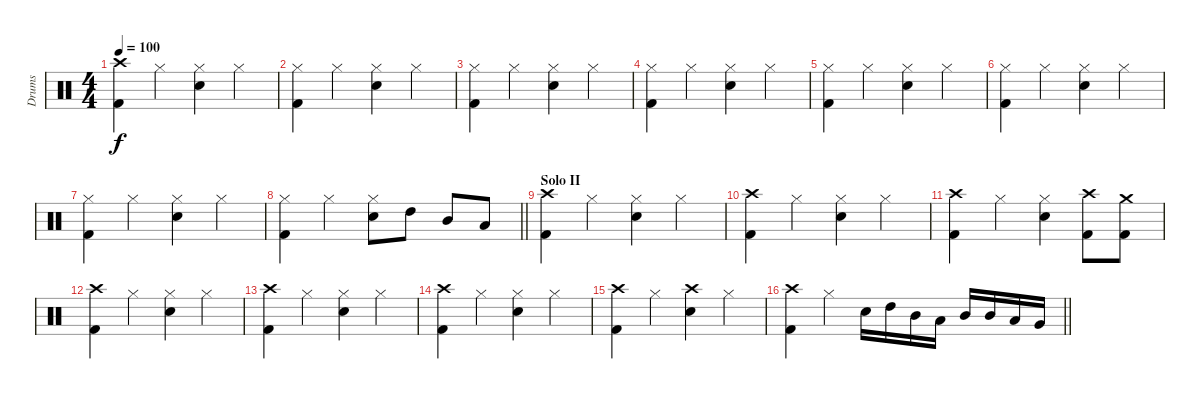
\track ("Drums" "Drums") {instrument percussion}
\staff {score}
\articulation defaults
\ts (4 4)
\tempo 100
\clef neutral
\ks c
("Crash high (hit)" "Kick (hit) 2").4{dy f} "Hi-Hat (closed)".4 ("Hi-Hat (closed)" "Snare (hit) 2").4 "Hi-Hat (closed)".4 |
("Hi-Hat (closed)" "Kick (hit) 2").4 "Hi-Hat (closed)".4 ("Hi-Hat (closed)" "Snare (hit) 2").4 "Hi-Hat (closed)".4 |
("Hi-Hat (closed)" "Kick (hit) 2").4 "Hi-Hat (closed)".4 ("Hi-Hat (closed)" "Snare (hit) 2").4 "Hi-Hat (closed)".4 |
("Hi-Hat (closed)" "Kick (hit) 2").4 "Hi-Hat (closed)".4 ("Hi-Hat (closed)" "Snare (hit) 2").4 "Hi-Hat (closed)".4 |
("Hi-Hat (closed)" "Kick (hit) 2").4 "Hi-Hat (closed)".4 ("Hi-Hat (closed)" "Snare (hit) 2").4 "Hi-Hat (closed)".4 |
("Hi-Hat (closed)" "Kick (hit) 2").4 "Hi-Hat (closed)".4 ("Hi-Hat (closed)" "Snare (hit) 2").4 "Hi-Hat (closed)".4 |
("Hi-Hat (closed)" "Kick (hit) 2").4 "Hi-Hat (closed)".4 ("Hi-Hat (closed)" "Snare (hit) 2").4 "Hi-Hat (closed)".4 |
\barLineRight lightlight
("Hi-Hat (closed)" "Kick (hit) 2").4 "Hi-Hat (closed)".4 ("Hi-Hat (closed)" "Snare (hit) 2").8 "High Tom (hit)".8 "Mid Tom (hit)".8 "Low Tom (hit)".8 |
\section ("" "Solo II")
("Crash high (hit)" "Kick (hit) 2").4 "Hi-Hat (closed)".4 ("Hi-Hat (closed)" "Snare (hit) 2").4 "Hi-Hat (closed)".4 |
("Crash high (hit)" "Kick (hit) 2").4 "Hi-Hat (closed)".4 ("Hi-Hat (closed)" "Snare (hit) 2").4 "Hi-Hat (closed)".4 |
("Crash high (hit)" "Kick (hit) 2").4 "Hi-Hat (closed)".4 ("Hi-Hat (closed)" "Snare (hit) 2").4 ("Kick (hit) 2" "Crash high (hit)").8 ("Kick (hit) 2" "Crash medium (hit)").8 |
("Crash high (hit)" "Kick (hit) 2").4 "Hi-Hat (closed)".4 ("Hi-Hat (closed)" "Snare (hit) 2").4 "Hi-Hat (closed)".4 |
("Crash high (hit)" "Kick (hit) 2").4 "Hi-Hat (closed)".4 ("Hi-Hat (closed)" "Snare (hit) 2").4 "Hi-Hat (closed)".4 |
("Crash high (hit)" "Kick (hit) 2").4 "Hi-Hat (closed)".4 ("Hi-Hat (closed)" "Snare (hit) 2").4 "Hi-Hat (closed)".4 |
("Crash high (hit)" "Kick (hit) 2").4 "Hi-Hat (closed)".4 ("Crash high (hit)" "Snare (hit) 2").4 "Hi-Hat (closed)".4 |
\barLineRight lightlight
("Crash high (hit)" "Kick (hit) 2").4 "Hi-Hat (closed)".4 "Snare (hit) 2".16 "High Tom (hit)".16 "Mid Tom (hit)".16 "Low Tom (hit)".16 "Mid Tom (hit)".16 "Mid Tom (hit)".16 "Low Tom (hit)".16 "Very Low Tom (hit)".16
